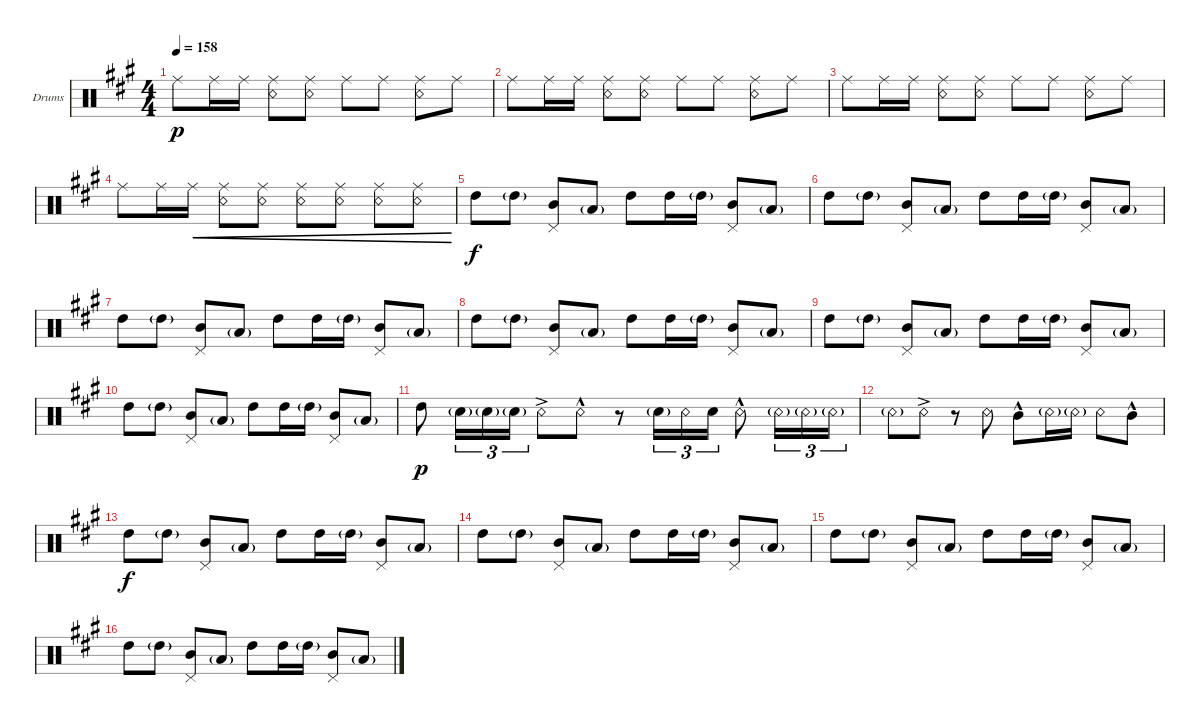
\defaultSystemsLayout 4
\bracketExtendMode groupsimilarinstruments
\firstSystemTrackNameOrientation horizontal
\otherSystemsTrackNameOrientation horizontal
\track ("Drums" "Drums") {instrument percussion}
\staff {score}
\articulation defaults
\ts (4 4)
\tempo 158
\clef neutral
\scale
0.333333
\ks a "Ride (middle)".8{dy p} "Ride (middle)".16 "Ride (middle)".16
("Ride (middle)" "Snare (rim shot)").8 ("Ride (middle)" "Snare (rim shot)").8 "Ride (middle)".8 "Ride (middle)".8 ("Ride (middle)" "Snare (rim shot)").8 "Ride (middle)".8 |
\scale
0.333333 "Ride (middle)".8 "Ride (middle)".16 "Ride (middle)".16 ("Ride (middle)" "Snare (rim shot)").8 ("Ride (middle)" "Snare (rim shot)").8 "Ride (middle)".8 "Ride (middle)".8 ("Ride (middle)" "Snare (rim shot)").8 "Ride (middle)".8 |
\scale
0.333333 "Ride (middle)".8 "Ride (middle)".16 "Ride (middle)".16 ("Ride (middle)" "Snare (rim shot)").8 ("Ride (middle)" "Snare (rim shot)").8 "Ride (middle)".8 "Ride (middle)".8 ("Ride (middle)" "Snare (rim shot)").8 "Ride (middle)".8 |
\scale
0.333333 "Ride (middle)".8 "Ride (middle)".16 "Ride (middle)".16{cre} ("Ride (middle)" "Snare (rim shot)").8{cre} ("Ride (middle)" "Snare (rim shot)").8{cre} ("Ride (middle)" "Snare (rim shot)").8{cre} ("Ride (middle)" "Snare (rim shot)").8{cre} ("Ride (middle)" "Snare (rim shot)").8{cre} ("Ride (middle)" "Snare (rim shot)").8{cre} |
\scale
0.333333 "High Tom (hit)".8{dy f} "High Tom (hit)"{g}.8 ("Mid Tom (hit)" "Pedal Hi-Hat (hit)").8 "Low Tom (hit)"{g}.8 "High Tom (hit)".8 "High Tom (hit)".16 "High Tom (hit)"{g}.16 ("Mid Tom (hit)" "Pedal Hi-Hat (hit)").8 "Low Tom (hit)"{g}.8 |
\scale
0.333333 "High Tom (hit)".8 "High Tom (hit)"{g}.8 ("Mid Tom (hit)" "Pedal Hi-Hat (hit)").8 "Low Tom (hit)"{g}.8 "High Tom (hit)".8 "High Tom (hit)".16 "High Tom (hit)"{g}.16 ("Mid Tom (hit)" "Pedal Hi-Hat (hit)").8 "Low Tom (hit)"{g}.8 |
\scale
0.333333 "High Tom (hit)".8 "High Tom (hit)"{g}.8 ("Mid Tom (hit)" "Pedal Hi-Hat (hit)").8 "Low Tom (hit)"{g}.8 "High Tom (hit)".8 "High Tom (hit)".16 "High Tom (hit)"{g}.16 ("Mid Tom (hit)" "Pedal Hi-Hat (hit)").8 "Low Tom (hit)"{g}.8 |
\scale
0.333333 "High Tom (hit)".8 "High Tom (hit)"{g}.8 ("Mid Tom (hit)" "Pedal Hi-Hat (hit)").8 "Low Tom (hit)"{g}.8 "High Tom (hit)".8 "High Tom (hit)".16 "High Tom (hit)"{g}.16 ("Mid Tom (hit)" "Pedal Hi-Hat (hit)").8 "Low Tom (hit)"{g}.8 |
\scale
0.333333 "High Tom (hit)".8 "High Tom (hit)"{g}.8 ("Mid Tom (hit)" "Pedal Hi-Hat (hit)").8 "Low Tom (hit)"{g}.8 "High Tom (hit)".8 "High Tom (hit)".16 "High Tom (hit)"{g}.16 ("Mid Tom (hit)" "Pedal Hi-Hat (hit)").8 "Low Tom (hit)"{g}.8 |
\scale
0.333333 "High Tom (hit)".8 "High Tom (hit)"{g}.8 ("Mid Tom (hit)" "Pedal Hi-Hat (hit)").8 "Low Tom (hit)"{g}.8 "High Tom (hit)".8 "High Tom (hit)".16 "High Tom (hit)"{g}.16 ("Mid Tom (hit)" "Pedal Hi-Hat (hit)").8 "Low Tom (hit)"{g}.8 |
\scale
0.333333 "High Tom (hit)".8{dy p} "Snare (hit) 2"{g}.16{tu (3 2)} "Snare (hit) 2"{g}.16{tu (3 2)} "Snare (hit) 2"{g}.16{tu (3 2)} "Snare (rim shot)"{ac}.8 "Snare (rim shot)"{hac}.8 r.8 "Snare (hit) 2"{g}.16{tu (3 2)} "Snare (rim shot)".16{tu (3 2)} "Snare (hit) 2".16{tu (3 2)} "Snare (rim shot)"{hac}.8 "Snare (rim shot)"{g}.16{tu (3 2)} "Snare (rim shot)"{g}.16{tu (3 2)} "Snare (rim shot)"{g}.16{tu (3 2)} |
\scale
0.333333 "Snare (rim shot)"{g}.8 "Snare (rim shot)"{ac}.8 r.8 "Snare (rim shot)".8 "Mid Tom (hit)"{hac}.8 "Snare (rim shot)"{g}.16 "Snare (rim shot)"{g}.16 "Snare (rim shot)".8 "Mid Tom (hit)"{hac}.8 |
\scale
0.333333 "High Tom (hit)".8{dy f} "High Tom (hit)"{g}.8 ("Mid Tom (hit)" "Pedal Hi-Hat (hit)").8 "Low Tom (hit)"{g}.8 "High Tom (hit)".8 "High Tom (hit)".16 "High Tom (hit)"{g}.16 ("Mid Tom (hit)" "Pedal Hi-Hat (hit)").8 "Low Tom (hit)"{g}.8 |
\scale
0.333333 "High Tom (hit)".8 "High Tom (hit)"{g}.8 ("Mid Tom (hit)" "Pedal Hi-Hat (hit)").8 "Low Tom (hit)"{g}.8 "High Tom (hit)".8 "High Tom (hit)".16 "High Tom (hit)"{g}.16 ("Mid Tom (hit)" "Pedal Hi-Hat (hit)").8 "Low Tom (hit)"{g}.8 |
\scale
0.333333 "High Tom (hit)".8 "High Tom (hit)"{g}.8 ("Mid Tom (hit)" "Pedal Hi-Hat (hit)").8 "Low Tom (hit)"{g}.8 "High Tom (hit)".8 "High Tom (hit)".16 "High Tom (hit)"{g}.16 ("Mid Tom (hit)" "Pedal Hi-Hat (hit)").8 "Low Tom (hit)"{g}.8 |
\scale
0.333333 "High Tom (hit)".8 "High Tom (hit)"{g}.8 ("Mid Tom (hit)" "Pedal Hi-Hat (hit)").8 "Low Tom (hit)"{g}.8 "High Tom (hit)".8 "High Tom (hit)".16 "High Tom (hit)"{g}.16 ("Mid Tom (hit)" "Pedal Hi-Hat (hit)").8 "Low Tom (hit)"{g}.8
